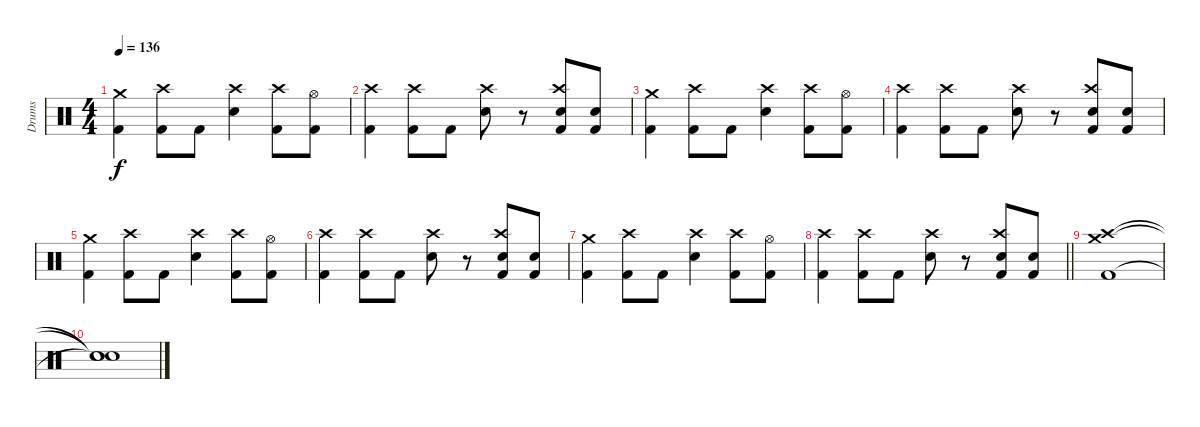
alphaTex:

\track ("Drums" "Drums") {instrument percussion}
\staff {score}
\articulation defaults
\ts (4 4)
\tempo 136
\clef neutral
\ks c
("Crash medium (hit)" "Kick (hit) 2").4{dy f} ("Crash high (hit)" "Kick (hit) 2").8 "Kick (hit) 2".8 ("Crash high (hit)" "Snare (hit) 2").4 ("Crash high (hit)" "Kick (hit) 2").8 ("Hi-Hat (open)" "Kick (hit) 2").8 |
("Crash high (hit)" "Kick (hit) 2").4 ("Crash high (hit)" "Kick (hit) 2").8 "Kick (hit) 2".8 ("Crash high (hit)" "Snare (hit) 2").8 r.8 ("Crash high (hit)" "Snare (hit) 2" "Kick (hit) 2").8 ("Snare (hit) 2" "Kick (hit) 2").8 |
("Crash medium (hit)" "Kick (hit) 2").4 ("Crash high (hit)" "Kick (hit) 2").8 "Kick (hit) 2".8 ("Crash high (hit)" "Snare (hit) 2").4 ("Crash high (hit)" "Kick (hit) 2").8 ("Hi-Hat (open)" "Kick (hit) 2").8 |
("Crash high (hit)" "Kick (hit) 2").4 ("Crash high (hit)" "Kick (hit) 2").8 "Kick (hit) 2".8 ("Crash high (hit)" "Snare (hit) 2").8 r.8 ("Crash high (hit)" "Snare (hit) 2" "Kick (hit) 2").8 ("Snare (hit) 2" "Kick (hit) 2").8 |
("Crash medium (hit)" "Kick (hit) 2").4 ("Crash high (hit)" "Kick (hit) 2").8 "Kick (hit) 2".8 ("Crash high (hit)" "Snare (hit) 2").4 ("Crash high (hit)" "Kick (hit) 2").8 ("Hi-Hat (open)" "Kick (hit) 2").8 |
("Crash high (hit)" "Kick (hit) 2").4 ("Crash high (hit)" "Kick (hit) 2").8 "Kick (hit) 2".8 ("Crash high (hit)" "Snare (hit) 2").8 r.8 ("Crash high (hit)" "Snare (hit) 2" "Kick (hit) 2").8 ("Snare (hit) 2" "Kick (hit) 2").8 |
("Crash medium (hit)" "Kick (hit) 2").4 ("Crash high (hit)" "Kick (hit) 2").8 "Kick (hit) 2".8 ("Crash high (hit)" "Snare (hit) 2").4 ("Crash high (hit)" "Kick (hit) 2").8 ("Hi-Hat (open)" "Kick (hit) 2").8 |
\barLineRight lightlight
("Crash high (hit)" "Kick (hit) 2").4 ("Crash high (hit)" "Kick (hit) 2").8 "Kick (hit) 2".8 ("Crash high (hit)" "Snare (hit) 2").8 r.8 ("Crash high (hit)" "Snare (hit) 2" "Kick (hit) 2").8 ("Snare (hit) 2" "Kick (hit) 2").8 |
("Crash medium (hit)" "Crash high (hit)" "Kick (hit) 2").1 |
("Snare (hit)"{t} "Snare (hit)"{t} "Snare (hit)"{t}).1
